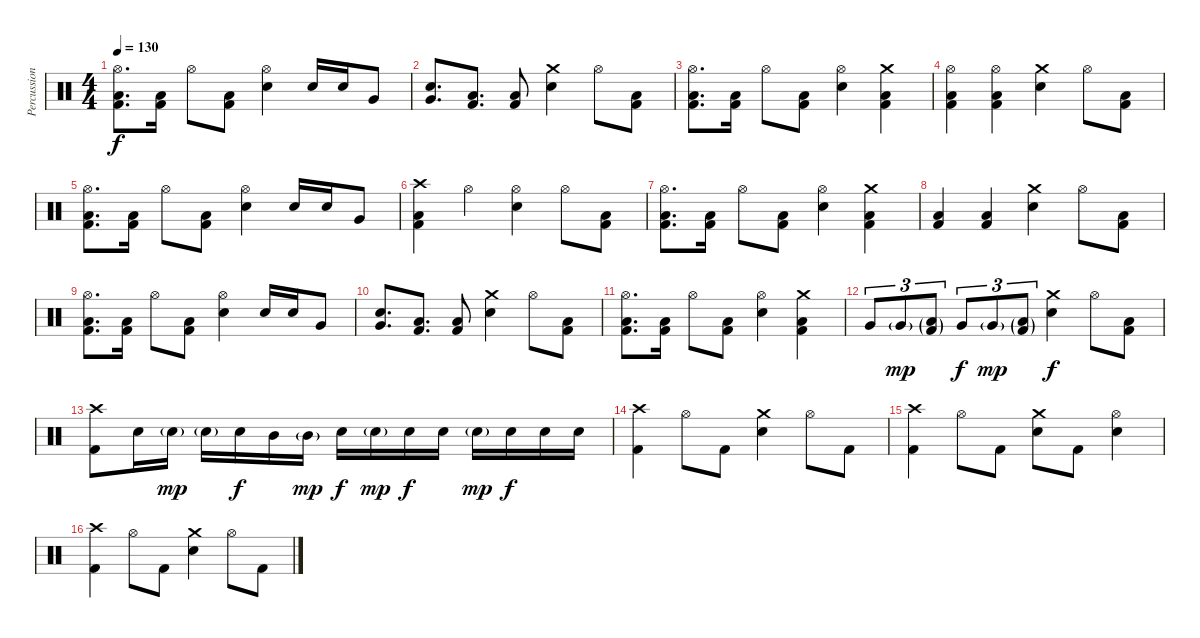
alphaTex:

\track ("Percussion" "Percussion") {instrument percussion}
\staff {score}
\articulation defaults
\ts (4 4)
\tempo 130
\clef neutral
\ks c
("Hi-Hat (open)" "Low Floor Tom (hit)" "Kick (hit) 2").8{d dy f} ("Low Floor Tom (hit)" "Kick (hit) 2").16 "Hi-Hat (open)".8 ("Low Floor Tom (hit)" "Kick (hit) 2").8 ("Hi-Hat (open)" "Electric Snare (hit)").4 "Electric Snare (hit)".16 "Electric Snare (hit)".16 "Very Low Tom (hit)".8 |
("Very Low Tom (hit)" "Electric Snare (hit)").8{d} ("Low Floor Tom (hit)" "Kick (hit) 2").8{d} ("Low Floor Tom (hit)" "Kick (hit) 2").8 ("Crash medium (hit)" "Electric Snare (hit)").4 "Hi-Hat (open)".8 ("Low Floor Tom (hit)" "Kick (hit) 2").8 |
("Hi-Hat (open)" "Low Floor Tom (hit)" "Kick (hit) 2").8{d} ("Low Floor Tom (hit)" "Kick (hit) 2").16 "Hi-Hat (open)".8 ("Low Floor Tom (hit)" "Kick (hit) 2").8 ("Hi-Hat (open)" "Electric Snare (hit)").4 ("Crash medium (hit)" "Low Floor Tom (hit)" "Kick (hit) 2").4 |
("Hi-Hat (open)" "Low Floor Tom (hit)" "Kick (hit) 2").4 ("Hi-Hat (open)" "Low Floor Tom (hit)" "Kick (hit) 2").4 ("Crash medium (hit)" "Electric Snare (hit)").4 "Hi-Hat (open)".8 ("Low Floor Tom (hit)" "Kick (hit) 2").8 |
("Hi-Hat (open)" "Low Floor Tom (hit)" "Kick (hit) 2").8{d} ("Low Floor Tom (hit)" "Kick (hit) 2").16 "Hi-Hat (open)".8 ("Low Floor Tom (hit)" "Kick (hit) 2").8 ("Hi-Hat (open)" "Electric Snare (hit)").4 "Electric Snare (hit)".16 "Electric Snare (hit)".16 "Very Low Tom (hit)".8 |
("Crash high (hit)" "Low Floor Tom (hit)" "Kick (hit) 2").4 "Hi-Hat (open)".4 ("Hi-Hat (open)" "Electric Snare (hit)").4 "Hi-Hat (open)".8 ("Low Floor Tom (hit)" "Kick (hit) 2").8 |
("Hi-Hat (open)" "Low Floor Tom (hit)" "Kick (hit) 2").8{d} ("Low Floor Tom (hit)" "Kick (hit) 2").16 "Hi-Hat (open)".8 ("Low Floor Tom (hit)" "Kick (hit) 2").8 ("Hi-Hat (open)" "Electric Snare (hit)").4 ("Crash medium (hit)" "Low Floor Tom (hit)" "Kick (hit) 2").4 |
("Low Floor Tom (hit)" "Kick (hit) 2").4 ("Low Floor Tom (hit)" "Kick (hit) 2").4 ("Crash medium (hit)" "Electric Snare (hit)").4 "Hi-Hat (open)".8 ("Low Floor Tom (hit)" "Kick (hit) 2").8 |
("Hi-Hat (open)" "Low Floor Tom (hit)" "Kick (hit) 2").8{d} ("Low Floor Tom (hit)" "Kick (hit) 2").16 "Hi-Hat (open)".8 ("Low Floor Tom (hit)" "Kick (hit) 2").8 ("Hi-Hat (open)" "Electric Snare (hit)").4 "Electric Snare (hit)".16 "Electric Snare (hit)".16 "Very Low Tom (hit)".8 |
("Very Low Tom (hit)" "Electric Snare (hit)").8{d} ("Low Floor Tom (hit)" "Kick (hit) 2").8{d} ("Low Floor Tom (hit)" "Kick (hit) 2").8 ("Crash medium (hit)" "Electric Snare (hit)").4 "Hi-Hat (open)".8 ("Low Floor Tom (hit)" "Kick (hit) 2").8 |
("Hi-Hat (open)" "Low Floor Tom (hit)" "Kick (hit) 2").8{d} ("Low Floor Tom (hit)" "Kick (hit) 2").16 "Hi-Hat (open)".8 ("Low Floor Tom (hit)" "Kick (hit) 2").8 ("Hi-Hat (open)" "Electric Snare (hit)").4 ("Crash medium (hit)" "Low Floor Tom (hit)" "Kick (hit) 2").4 |
"Very Low Tom (hit)".8{tu (3 2)} "Very Low Tom (hit)"{g}.8{tu (3 2) dy mp} ("Low Floor Tom (hit)"{g} "Kick (hit) 2"{g}).8{tu (3 2)} "Very Low Tom (hit)".8{tu (3 2) dy f} "Very Low Tom (hit)"{g}.8{tu (3 2) dy mp} ("Low Floor Tom (hit)"{g} "Kick (hit) 2"{g}).8{tu (3 2)} ("Crash medium (hit)" "Electric Snare (hit)").4{dy f} "Hi-Hat (open)".8 ("Low Floor Tom (hit)" "Kick (hit) 2").8 |
("Crash high (hit)" "Kick (hit) 2").8 "Electric Snare (hit)".16 "Electric Snare (hit)"{g}.16{dy mp} "Electric Snare (hit)"{g}.16 "Electric Snare (hit)".16{dy f} "Mid Tom (hit)".16 "Mid Tom (hit)"{g}.16{dy mp} "Electric Snare (hit)".16{dy f} "Electric Snare (hit)"{g}.16{dy mp} "Electric Snare (hit)".16{dy f} "Electric Snare (hit)".16 "Electric Snare (hit)"{g}.16{dy mp} "Electric Snare (hit)".16{dy f} "Electric Snare (hit)".16 "Electric Snare (hit)".16 |
("Crash high (hit)" "Kick (hit) 2").4 "Hi-Hat (open)".8 "Kick (hit) 2".8 ("Crash medium (hit)" "Electric Snare (hit)").4 "Hi-Hat (open)".8 "Kick (hit) 2".8 |
("Crash high (hit)" "Kick (hit) 2").4 "Hi-Hat (open)".8 "Kick (hit) 2".8 ("Crash medium (hit)" "Electric Snare (hit)").8 "Kick (hit) 2".8 ("Hi-Hat (open)" "Electric Snare (hit)").4 |
("Crash high (hit)" "Kick (hit) 2").4 "Hi-Hat (open)".8 "Kick (hit) 2".8 ("Crash medium (hit)" "Electric Snare (hit)").4 "Hi-Hat (open)".8 "Kick (hit) 2".8
